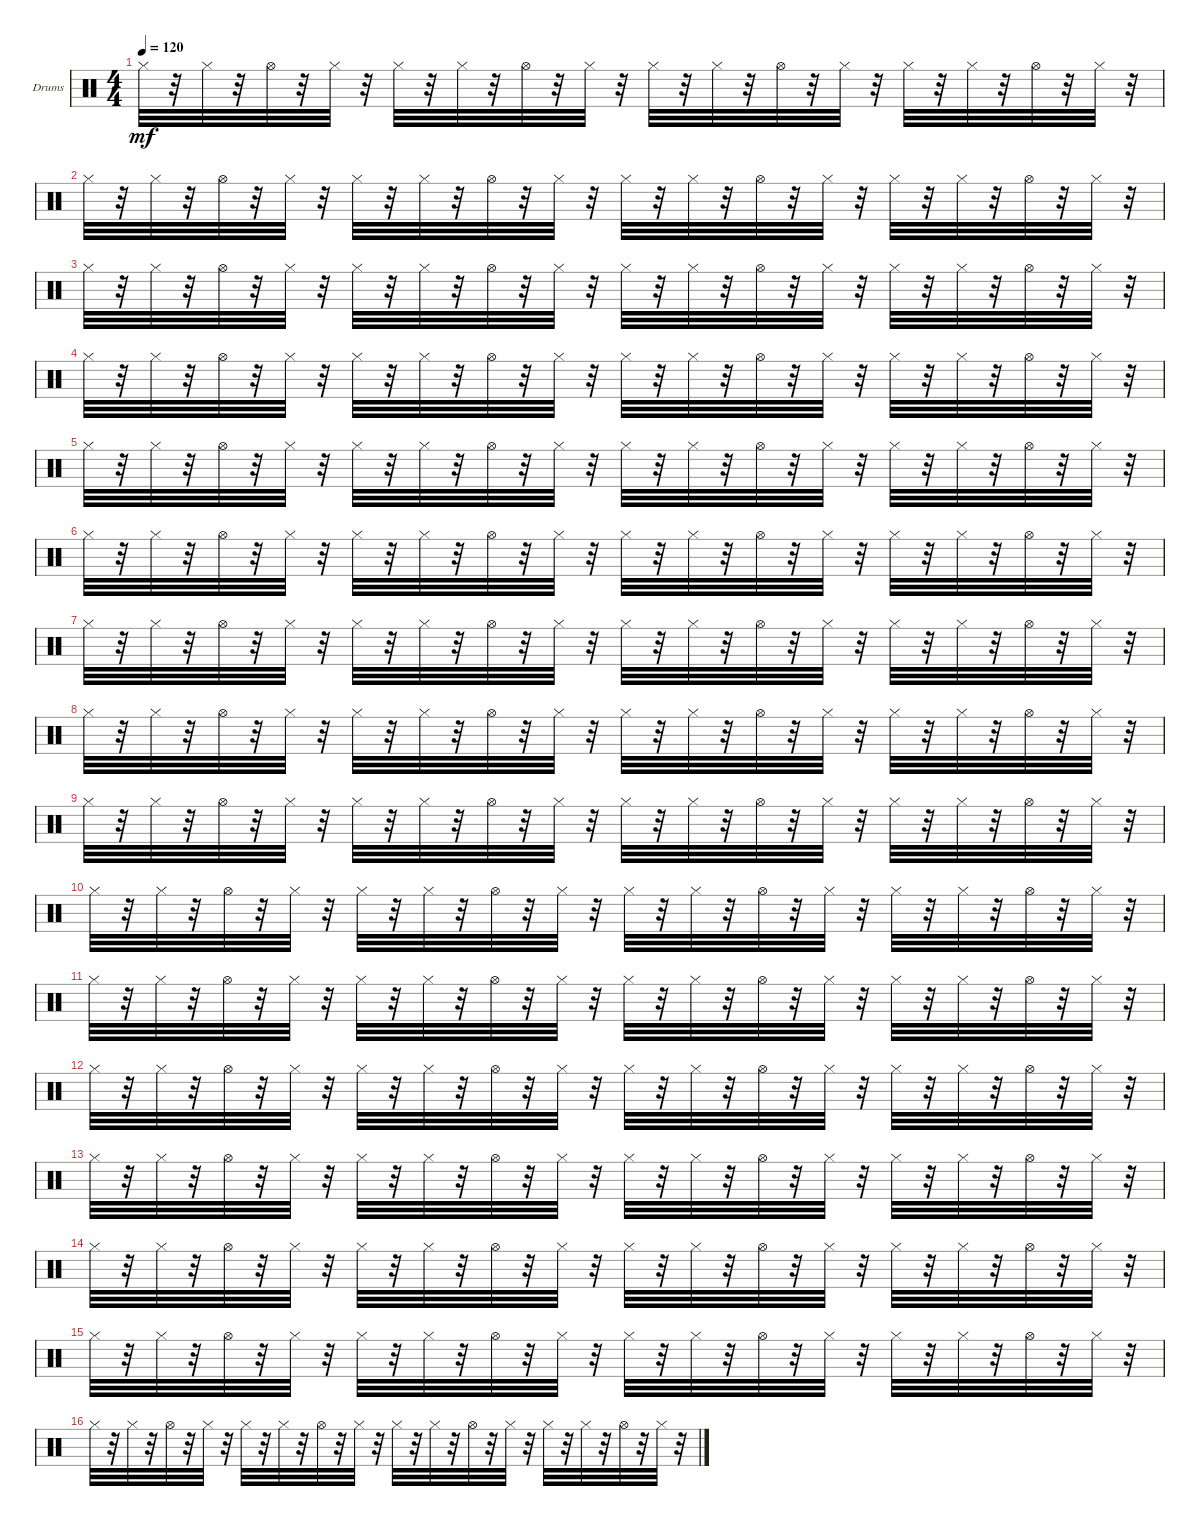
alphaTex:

\defaultSystemsLayout 4
\bracketExtendMode nobrackets
\firstSystemTrackNameOrientation horizontal
\otherSystemsTrackNameOrientation horizontal
\track ("Drumkit" "Drums") {instrument percussion}
\staff {score}
\articulation defaults
\ts (4 4)
\tempo 120
\clef neutral
\ks c "Hi-Hat (closed)".32{dy mf}
r.32 "Hi-Hat (closed)".32 r.32 "Hi-Hat (open)".32 r.32 "Hi-Hat (closed)".32 r.32 "Hi-Hat (closed)".32 r.32 "Hi-Hat (closed)".32 r.32 "Hi-Hat (open)".32 r.32 "Hi-Hat (closed)".32 r.32 "Hi-Hat (closed)".32 r.32 "Hi-Hat (closed)".32 r.32 "Hi-Hat (open)".32 r.32 "Hi-Hat (closed)".32 r.32 "Hi-Hat (closed)".32 r.32 "Hi-Hat (closed)".32 r.32 "Hi-Hat (open)".32 r.32 "Hi-Hat (closed)".32 r.32 |
"Hi-Hat (closed)".32 r.32 "Hi-Hat (closed)".32 r.32 "Hi-Hat (open)".32 r.32 "Hi-Hat (closed)".32 r.32 "Hi-Hat (closed)".32 r.32 "Hi-Hat (closed)".32 r.32 "Hi-Hat (open)".32 r.32 "Hi-Hat (closed)".32 r.32 "Hi-Hat (closed)".32 r.32 "Hi-Hat (closed)".32 r.32 "Hi-Hat (open)".32 r.32 "Hi-Hat (closed)".32 r.32 "Hi-Hat (closed)".32 r.32 "Hi-Hat (closed)".32 r.32 "Hi-Hat (open)".32 r.32 "Hi-Hat (closed)".32 r.32 |
"Hi-Hat (closed)".32 r.32 "Hi-Hat (closed)".32 r.32 "Hi-Hat (open)".32 r.32 "Hi-Hat (closed)".32 r.32 "Hi-Hat (closed)".32 r.32 "Hi-Hat (closed)".32 r.32 "Hi-Hat (open)".32 r.32 "Hi-Hat (closed)".32 r.32 "Hi-Hat (closed)".32 r.32 "Hi-Hat (closed)".32 r.32 "Hi-Hat (open)".32 r.32 "Hi-Hat (closed)".32 r.32 "Hi-Hat (closed)".32 r.32 "Hi-Hat (closed)".32 r.32 "Hi-Hat (open)".32 r.32 "Hi-Hat (closed)".32 r.32 |
"Hi-Hat (closed)".32 r.32 "Hi-Hat (closed)".32 r.32 "Hi-Hat (open)".32 r.32 "Hi-Hat (closed)".32 r.32 "Hi-Hat (closed)".32 r.32 "Hi-Hat (closed)".32 r.32 "Hi-Hat (open)".32 r.32 "Hi-Hat (closed)".32 r.32 "Hi-Hat (closed)".32 r.32 "Hi-Hat (closed)".32 r.32 "Hi-Hat (open)".32 r.32 "Hi-Hat (closed)".32 r.32 "Hi-Hat (closed)".32 r.32 "Hi-Hat (closed)".32 r.32 "Hi-Hat (open)".32 r.32 "Hi-Hat (closed)".32 r.32 |
"Hi-Hat (closed)".32 r.32 "Hi-Hat (closed)".32 r.32 "Hi-Hat (open)".32 r.32 "Hi-Hat (closed)".32 r.32 "Hi-Hat (closed)".32 r.32 "Hi-Hat (closed)".32 r.32 "Hi-Hat (open)".32 r.32 "Hi-Hat (closed)".32 r.32 "Hi-Hat (closed)".32 r.32 "Hi-Hat (closed)".32 r.32 "Hi-Hat (open)".32 r.32 "Hi-Hat (closed)".32 r.32 "Hi-Hat (closed)".32 r.32 "Hi-Hat (closed)".32 r.32 "Hi-Hat (open)".32 r.32 "Hi-Hat (closed)".32 r.32 |
"Hi-Hat (closed)".32 r.32 "Hi-Hat (closed)".32 r.32 "Hi-Hat (open)".32 r.32 "Hi-Hat (closed)".32 r.32 "Hi-Hat (closed)".32 r.32 "Hi-Hat (closed)".32 r.32 "Hi-Hat (open)".32 r.32 "Hi-Hat (closed)".32 r.32 "Hi-Hat (closed)".32 r.32 "Hi-Hat (closed)".32 r.32 "Hi-Hat (open)".32 r.32 "Hi-Hat (closed)".32 r.32 "Hi-Hat (closed)".32 r.32 "Hi-Hat (closed)".32 r.32 "Hi-Hat (open)".32 r.32 "Hi-Hat (closed)".32 r.32 |
"Hi-Hat (closed)".32 r.32 "Hi-Hat (closed)".32 r.32 "Hi-Hat (open)".32 r.32 "Hi-Hat (closed)".32 r.32 "Hi-Hat (closed)".32 r.32 "Hi-Hat (closed)".32 r.32 "Hi-Hat (open)".32 r.32 "Hi-Hat (closed)".32 r.32 "Hi-Hat (closed)".32 r.32 "Hi-Hat (closed)".32 r.32 "Hi-Hat (open)".32 r.32 "Hi-Hat (closed)".32 r.32 "Hi-Hat (closed)".32 r.32 "Hi-Hat (closed)".32 r.32 "Hi-Hat (open)".32 r.32 "Hi-Hat (closed)".32 r.32 |
"Hi-Hat (closed)".32 r.32 "Hi-Hat (closed)".32 r.32 "Hi-Hat (open)".32 r.32 "Hi-Hat (closed)".32 r.32 "Hi-Hat (closed)".32 r.32 "Hi-Hat (closed)".32 r.32 "Hi-Hat (open)".32 r.32 "Hi-Hat (closed)".32 r.32 "Hi-Hat (closed)".32 r.32 "Hi-Hat (closed)".32 r.32 "Hi-Hat (open)".32 r.32 "Hi-Hat (closed)".32 r.32 "Hi-Hat (closed)".32 r.32 "Hi-Hat (closed)".32 r.32 "Hi-Hat (open)".32 r.32 "Hi-Hat (closed)".32 r.32 |
"Hi-Hat (closed)".32 r.32 "Hi-Hat (closed)".32 r.32 "Hi-Hat (open)".32 r.32 "Hi-Hat (closed)".32 r.32 "Hi-Hat (closed)".32 r.32 "Hi-Hat (closed)".32 r.32 "Hi-Hat (open)".32 r.32 "Hi-Hat (closed)".32 r.32 "Hi-Hat (closed)".32 r.32 "Hi-Hat (closed)".32 r.32 "Hi-Hat (open)".32 r.32 "Hi-Hat (closed)".32 r.32 "Hi-Hat (closed)".32 r.32 "Hi-Hat (closed)".32 r.32 "Hi-Hat (open)".32 r.32 "Hi-Hat (closed)".32 r.32 |
"Hi-Hat (closed)".32 r.32 "Hi-Hat (closed)".32 r.32 "Hi-Hat (open)".32 r.32 "Hi-Hat (closed)".32 r.32 "Hi-Hat (closed)".32 r.32 "Hi-Hat (closed)".32 r.32 "Hi-Hat (open)".32 r.32 "Hi-Hat (closed)".32 r.32 "Hi-Hat (closed)".32 r.32 "Hi-Hat (closed)".32 r.32 "Hi-Hat (open)".32 r.32 "Hi-Hat (closed)".32 r.32 "Hi-Hat (closed)".32 r.32 "Hi-Hat (closed)".32 r.32 "Hi-Hat (open)".32 r.32 "Hi-Hat (closed)".32 r.32 |
"Hi-Hat (closed)".32 r.32 "Hi-Hat (closed)".32 r.32 "Hi-Hat (open)".32 r.32 "Hi-Hat (closed)".32 r.32 "Hi-Hat (closed)".32 r.32 "Hi-Hat (closed)".32 r.32 "Hi-Hat (open)".32 r.32 "Hi-Hat (closed)".32 r.32 "Hi-Hat (closed)".32 r.32 "Hi-Hat (closed)".32 r.32 "Hi-Hat (open)".32 r.32 "Hi-Hat (closed)".32 r.32 "Hi-Hat (closed)".32 r.32 "Hi-Hat (closed)".32 r.32 "Hi-Hat (open)".32 r.32 "Hi-Hat (closed)".32 r.32 |
"Hi-Hat (closed)".32 r.32 "Hi-Hat (closed)".32 r.32 "Hi-Hat (open)".32 r.32 "Hi-Hat (closed)".32 r.32 "Hi-Hat (closed)".32 r.32 "Hi-Hat (closed)".32 r.32 "Hi-Hat (open)".32 r.32 "Hi-Hat (closed)".32 r.32 "Hi-Hat (closed)".32 r.32 "Hi-Hat (closed)".32 r.32 "Hi-Hat (open)".32 r.32 "Hi-Hat (closed)".32 r.32 "Hi-Hat (closed)".32 r.32 "Hi-Hat (closed)".32 r.32 "Hi-Hat (open)".32 r.32 "Hi-Hat (closed)".32 r.32 |
"Hi-Hat (closed)".32 r.32 "Hi-Hat (closed)".32 r.32 "Hi-Hat (open)".32 r.32 "Hi-Hat (closed)".32 r.32 "Hi-Hat (closed)".32 r.32 "Hi-Hat (closed)".32 r.32 "Hi-Hat (open)".32 r.32 "Hi-Hat (closed)".32 r.32 "Hi-Hat (closed)".32 r.32 "Hi-Hat (closed)".32 r.32 "Hi-Hat (open)".32 r.32 "Hi-Hat (closed)".32 r.32 "Hi-Hat (closed)".32 r.32 "Hi-Hat (closed)".32 r.32 "Hi-Hat (open)".32 r.32 "Hi-Hat (closed)".32 r.32 |
"Hi-Hat (closed)".32 r.32 "Hi-Hat (closed)".32 r.32 "Hi-Hat (open)".32 r.32 "Hi-Hat (closed)".32 r.32 "Hi-Hat (closed)".32 r.32 "Hi-Hat (closed)".32 r.32 "Hi-Hat (open)".32 r.32 "Hi-Hat (closed)".32 r.32 "Hi-Hat (closed)".32 r.32 "Hi-Hat (closed)".32 r.32 "Hi-Hat (open)".32 r.32 "Hi-Hat (closed)".32 r.32 "Hi-Hat (closed)".32 r.32 "Hi-Hat (closed)".32 r.32 "Hi-Hat (open)".32 r.32 "Hi-Hat (closed)".32 r.32 |
"Hi-Hat (closed)".32 r.32 "Hi-Hat (closed)".32 r.32 "Hi-Hat (open)".32 r.32 "Hi-Hat (closed)".32 r.32 "Hi-Hat (closed)".32 r.32 "Hi-Hat (closed)".32 r.32 "Hi-Hat (open)".32 r.32 "Hi-Hat (closed)".32 r.32 "Hi-Hat (closed)".32 r.32 "Hi-Hat (closed)".32 r.32 "Hi-Hat (open)".32 r.32 "Hi-Hat (closed)".32 r.32 "Hi-Hat (closed)".32 r.32 "Hi-Hat (closed)".32 r.32 "Hi-Hat (open)".32 r.32 "Hi-Hat (closed)".32 r.32 |
"Hi-Hat (closed)".32 r.32 "Hi-Hat (closed)".32 r.32 "Hi-Hat (open)".32 r.32 "Hi-Hat (closed)".32 r.32 "Hi-Hat (closed)".32 r.32 "Hi-Hat (closed)".32 r.32 "Hi-Hat (open)".32 r.32 "Hi-Hat (closed)".32 r.32 "Hi-Hat (closed)".32 r.32 "Hi-Hat (closed)".32 r.32 "Hi-Hat (open)".32 r.32 "Hi-Hat (closed)".32 r.32 "Hi-Hat (closed)".32 r.32 "Hi-Hat (closed)".32 r.32 "Hi-Hat (open)".32 r.32 "Hi-Hat (closed)".32 r.32
